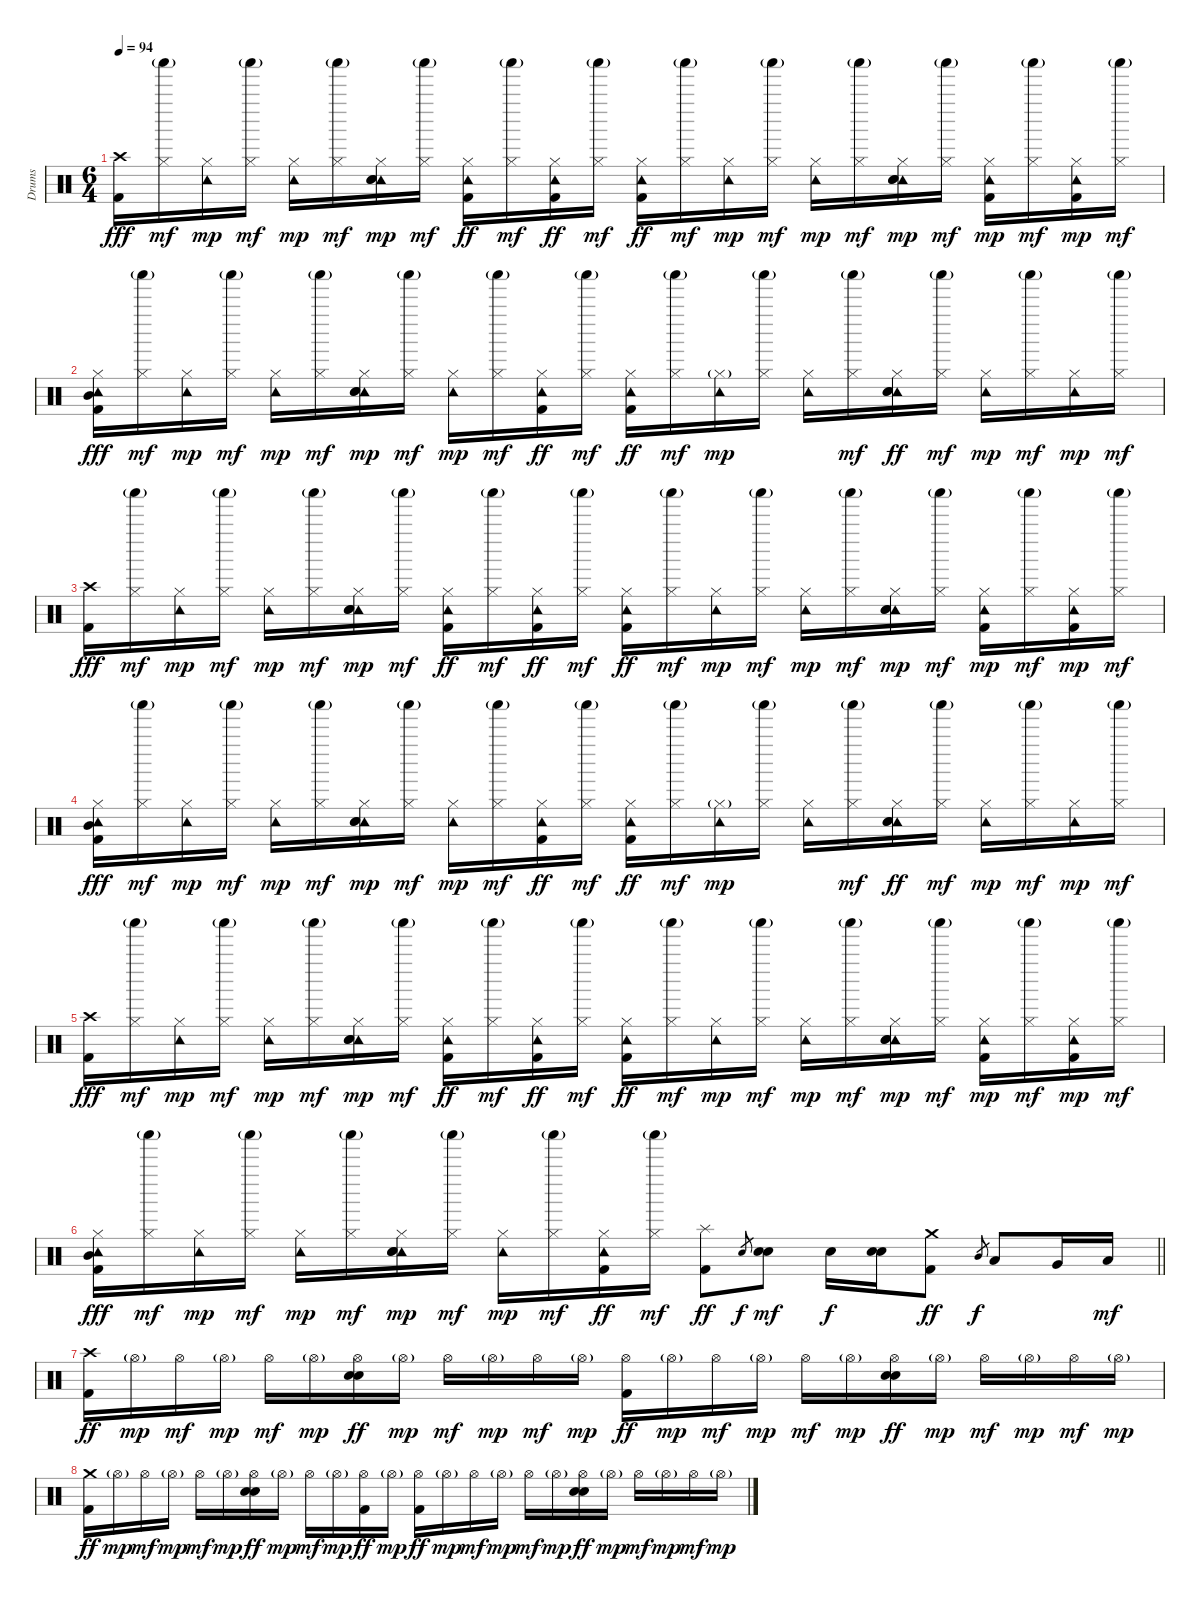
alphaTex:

\track ("Drums" "Drums") {instrument percussion}
\staff {score}
\articulation defaults
\ts (6 4)
\tempo 94
\clef neutral
\ks c
("Crash high (hit)" "Kick (hit) 2").16{dy fff} ("Shaker (hit)"{g} "Hi-Hat (closed)").16{dy mf} ("Hi-Hat (closed)" "Tambourine (hit)").16{dy mp} ("Shaker (hit)"{g} "Hi-Hat (closed)").16{dy mf} ("Hi-Hat (closed)" "Tambourine (hit)").16{dy mp} ("Shaker (hit)"{g} "Hi-Hat (closed)").16{dy mf} ("Hi-Hat (closed)" "Tambourine (hit)" "Electric Snare (hit)" "Metronome (bell)").16{dy mp} ("Shaker (hit)"{g} "Hi-Hat (closed)").16{dy mf} ("Hi-Hat (closed)" "Tambourine (hit)" "Kick (hit) 2").16{dy ff} ("Shaker (hit)"{g} "Hi-Hat (closed)").16{dy mf} ("Hi-Hat (closed)" "Tambourine (hit)" "Kick (hit) 2").16{dy ff} ("Shaker (hit)"{g} "Hi-Hat (closed)").16{dy mf} ("Hi-Hat (closed)" "Tambourine (hit)" "Kick (hit) 2").16{dy ff} ("Shaker (hit)"{g} "Hi-Hat (closed)").16{dy mf} ("Hi-Hat (closed)" "Tambourine (hit)").16{dy mp} ("Shaker (hit)"{g} "Hi-Hat (closed)").16{dy mf} ("Hi-Hat (closed)" "Tambourine (hit)").16{dy mp} ("Shaker (hit)"{g} "Hi-Hat (closed)").16{dy mf} ("Hi-Hat (closed)" "Tambourine (hit)" "Electric Snare (hit)" "Metronome (bell)").16{dy mp} ("Shaker (hit)"{g} "Hi-Hat (closed)").16{dy mf} ("Hi-Hat (closed)" "Tambourine (hit)" "Kick (hit) 2").16{dy mp} ("Shaker (hit)"{g} "Hi-Hat (closed)").16{dy mf} ("Hi-Hat (closed)" "Tambourine (hit)" "Kick (hit) 2").16{dy mp} ("Shaker (hit)"{g} "Hi-Hat (closed)").16{dy mf} |
("Hi-Hat (closed)" "Tambourine (hit)" "Mid Tom (hit)" "Kick (hit) 2").16{dy fff} ("Shaker (hit)"{g} "Hi-Hat (closed)").16{dy mf} ("Hi-Hat (closed)" "Tambourine (hit)").16{dy mp} ("Shaker (hit)"{g} "Hi-Hat (closed)").16{dy mf} ("Hi-Hat (closed)" "Tambourine (hit)").16{dy mp} ("Shaker (hit)"{g} "Hi-Hat (closed)").16{dy mf} ("Hi-Hat (closed)" "Tambourine (hit)" "Electric Snare (hit)" "Metronome (bell)").16{dy mp} ("Shaker (hit)"{g} "Hi-Hat (closed)").16{dy mf} ("Hi-Hat (closed)" "Tambourine (hit)").16{dy mp} ("Shaker (hit)"{g} "Hi-Hat (closed)").16{dy mf} ("Hi-Hat (closed)" "Tambourine (hit)" "Kick (hit) 2").16{dy ff} ("Shaker (hit)"{g} "Hi-Hat (closed)").16{dy mf} ("Hi-Hat (closed)" "Tambourine (hit)" "Kick (hit) 2").16{dy ff} ("Shaker (hit)"{g} "Hi-Hat (closed)").16{dy mf} ("Hi-Hat (closed)"{g} "Tambourine (hit)").16{dy mp} ("Shaker (hit)"{g} "Hi-Hat (closed)").16 ("Hi-Hat (closed)" "Tambourine (hit)").16 ("Shaker (hit)"{g} "Hi-Hat (closed)").16{dy mf} ("Hi-Hat (closed)" "Tambourine (hit)" "Electric Snare (hit)" "Metronome (bell)").16{dy ff} ("Shaker (hit)"{g} "Hi-Hat (closed)").16{dy mf} ("Hi-Hat (closed)" "Tambourine (hit)").16{dy mp} ("Shaker (hit)"{g} "Hi-Hat (closed)").16{dy mf} ("Hi-Hat (closed)" "Tambourine (hit)").16{dy mp} ("Shaker (hit)"{g} "Hi-Hat (closed)").16{dy mf} |
("Crash high (hit)" "Kick (hit) 2").16{dy fff} ("Shaker (hit)"{g} "Hi-Hat (closed)").16{dy mf} ("Hi-Hat (closed)" "Tambourine (hit)").16{dy mp} ("Shaker (hit)"{g} "Hi-Hat (closed)").16{dy mf} ("Hi-Hat (closed)" "Tambourine (hit)").16{dy mp} ("Shaker (hit)"{g} "Hi-Hat (closed)").16{dy mf} ("Hi-Hat (closed)" "Tambourine (hit)" "Electric Snare (hit)" "Metronome (bell)").16{dy mp} ("Shaker (hit)"{g} "Hi-Hat (closed)").16{dy mf} ("Hi-Hat (closed)" "Tambourine (hit)" "Kick (hit) 2").16{dy ff} ("Shaker (hit)"{g} "Hi-Hat (closed)").16{dy mf} ("Hi-Hat (closed)" "Tambourine (hit)" "Kick (hit) 2").16{dy ff} ("Shaker (hit)"{g} "Hi-Hat (closed)").16{dy mf} ("Hi-Hat (closed)" "Tambourine (hit)" "Kick (hit) 2").16{dy ff} ("Shaker (hit)"{g} "Hi-Hat (closed)").16{dy mf} ("Hi-Hat (closed)" "Tambourine (hit)").16{dy mp} ("Shaker (hit)"{g} "Hi-Hat (closed)").16{dy mf} ("Hi-Hat (closed)" "Tambourine (hit)").16{dy mp} ("Shaker (hit)"{g} "Hi-Hat (closed)").16{dy mf} ("Hi-Hat (closed)" "Tambourine (hit)" "Electric Snare (hit)" "Metronome (bell)").16{dy mp} ("Shaker (hit)"{g} "Hi-Hat (closed)").16{dy mf} ("Hi-Hat (closed)" "Tambourine (hit)" "Kick (hit) 2").16{dy mp} ("Shaker (hit)"{g} "Hi-Hat (closed)").16{dy mf} ("Hi-Hat (closed)" "Tambourine (hit)" "Kick (hit) 2").16{dy mp} ("Shaker (hit)"{g} "Hi-Hat (closed)").16{dy mf} |
("Hi-Hat (closed)" "Tambourine (hit)" "Mid Tom (hit)" "Kick (hit) 2").16{dy fff} ("Shaker (hit)"{g} "Hi-Hat (closed)").16{dy mf} ("Hi-Hat (closed)" "Tambourine (hit)").16{dy mp} ("Shaker (hit)"{g} "Hi-Hat (closed)").16{dy mf} ("Hi-Hat (closed)" "Tambourine (hit)").16{dy mp} ("Shaker (hit)"{g} "Hi-Hat (closed)").16{dy mf} ("Hi-Hat (closed)" "Tambourine (hit)" "Electric Snare (hit)" "Metronome (bell)").16{dy mp} ("Shaker (hit)"{g} "Hi-Hat (closed)").16{dy mf} ("Hi-Hat (closed)" "Tambourine (hit)").16{dy mp} ("Shaker (hit)"{g} "Hi-Hat (closed)").16{dy mf} ("Hi-Hat (closed)" "Tambourine (hit)" "Kick (hit) 2").16{dy ff} ("Shaker (hit)"{g} "Hi-Hat (closed)").16{dy mf} ("Hi-Hat (closed)" "Tambourine (hit)" "Kick (hit) 2").16{dy ff} ("Shaker (hit)"{g} "Hi-Hat (closed)").16{dy mf} ("Hi-Hat (closed)"{g} "Tambourine (hit)").16{dy mp} ("Shaker (hit)"{g} "Hi-Hat (closed)").16 ("Hi-Hat (closed)" "Tambourine (hit)").16 ("Shaker (hit)"{g} "Hi-Hat (closed)").16{dy mf} ("Hi-Hat (closed)" "Tambourine (hit)" "Electric Snare (hit)" "Metronome (bell)").16{dy ff} ("Shaker (hit)"{g} "Hi-Hat (closed)").16{dy mf} ("Hi-Hat (closed)" "Tambourine (hit)").16{dy mp} ("Shaker (hit)"{g} "Hi-Hat (closed)").16{dy mf} ("Hi-Hat (closed)" "Tambourine (hit)").16{dy mp} ("Shaker (hit)"{g} "Hi-Hat (closed)").16{dy mf} |
("Crash high (hit)" "Kick (hit) 2").16{dy fff} ("Shaker (hit)"{g} "Hi-Hat (closed)").16{dy mf} ("Hi-Hat (closed)" "Tambourine (hit)").16{dy mp} ("Shaker (hit)"{g} "Hi-Hat (closed)").16{dy mf} ("Hi-Hat (closed)" "Tambourine (hit)").16{dy mp} ("Shaker (hit)"{g} "Hi-Hat (closed)").16{dy mf} ("Hi-Hat (closed)" "Tambourine (hit)" "Electric Snare (hit)" "Metronome (bell)").16{dy mp} ("Shaker (hit)"{g} "Hi-Hat (closed)").16{dy mf} ("Hi-Hat (closed)" "Tambourine (hit)" "Kick (hit) 2").16{dy ff} ("Shaker (hit)"{g} "Hi-Hat (closed)").16{dy mf} ("Hi-Hat (closed)" "Tambourine (hit)" "Kick (hit) 2").16{dy ff} ("Shaker (hit)"{g} "Hi-Hat (closed)").16{dy mf} ("Hi-Hat (closed)" "Tambourine (hit)" "Kick (hit) 2").16{dy ff} ("Shaker (hit)"{g} "Hi-Hat (closed)").16{dy mf} ("Hi-Hat (closed)" "Tambourine (hit)").16{dy mp} ("Shaker (hit)"{g} "Hi-Hat (closed)").16{dy mf} ("Hi-Hat (closed)" "Tambourine (hit)").16{dy mp} ("Shaker (hit)"{g} "Hi-Hat (closed)").16{dy mf} ("Hi-Hat (closed)" "Tambourine (hit)" "Electric Snare (hit)" "Metronome (bell)").16{dy mp} ("Shaker (hit)"{g} "Hi-Hat (closed)").16{dy mf} ("Hi-Hat (closed)" "Tambourine (hit)" "Kick (hit) 2").16{dy mp} ("Shaker (hit)"{g} "Hi-Hat (closed)").16{dy mf} ("Hi-Hat (closed)" "Tambourine (hit)" "Kick (hit) 2").16{dy mp} ("Shaker (hit)"{g} "Hi-Hat (closed)").16{dy mf} |
\barLineRight lightlight
("Hi-Hat (closed)" "Tambourine (hit)" "Mid Tom (hit)" "Kick (hit) 2").16{dy fff} ("Shaker (hit)"{g} "Hi-Hat (closed)").16{dy mf} ("Hi-Hat (closed)" "Tambourine (hit)").16{dy mp} ("Shaker (hit)"{g} "Hi-Hat (closed)").16{dy mf} ("Hi-Hat (closed)" "Tambourine (hit)").16{dy mp} ("Shaker (hit)"{g} "Hi-Hat (closed)").16{dy mf} ("Hi-Hat (closed)" "Tambourine (hit)" "Electric Snare (hit)" "Metronome (bell)").16{dy mp} ("Shaker (hit)"{g} "Hi-Hat (closed)").16{dy mf} ("Hi-Hat (closed)" "Tambourine (hit)").16{dy mp} ("Shaker (hit)"{g} "Hi-Hat (closed)").16{dy mf} ("Hi-Hat (closed)" "Tambourine (hit)" "Kick (hit) 2").16{dy ff} ("Shaker (hit)"{g} "Hi-Hat (closed)").16{dy mf} ("Splash (hit)" "Kick (hit) 2").8{dy ff} "Electric Snare (hit)".8{gr dy f} ("Electric Snare (hit)" "Metronome (bell)").8{dy mf} "Electric Snare (hit)".16{dy f} ("Electric Snare (hit)" "Metronome (bell)").16 ("Crash medium (hit)" "Kick (hit) 2").8{dy ff} "Mid Tom (hit)".8{gr dy f} "Low Tom (hit)".8 "Very Low Tom (hit)".16 "Low Floor Tom (hit)".16{dy mf} |
("Crash high (hit)" "Kick (hit) 2").16{dy ff} "Hi-Hat (open)"{g}.16{dy mp} "Hi-Hat (open)".16{dy mf} "Hi-Hat (open)"{g}.16{dy mp} "Hi-Hat (open)".16{dy mf} "Hi-Hat (open)"{g}.16{dy mp} ("Hi-Hat (open)" "Electric Snare (hit)" "Metronome (bell)").16{dy ff} "Hi-Hat (open)"{g}.16{dy mp} "Hi-Hat (open)".16{dy mf} "Hi-Hat (open)"{g}.16{dy mp} "Hi-Hat (open)".16{dy mf} "Hi-Hat (open)"{g}.16{dy mp} ("Hi-Hat (open)" "Kick (hit) 2").16{dy ff} "Hi-Hat (open)"{g}.16{dy mp} "Hi-Hat (open)".16{dy mf} "Hi-Hat (open)"{g}.16{dy mp} "Hi-Hat (open)".16{dy mf} "Hi-Hat (open)"{g}.16{dy mp} ("Hi-Hat (open)" "Electric Snare (hit)" "Metronome (bell)").16{dy ff} "Hi-Hat (open)"{g}.16{dy mp} "Hi-Hat (open)".16{dy mf} "Hi-Hat (open)"{g}.16{dy mp} "Hi-Hat (open)".16{dy mf} "Hi-Hat (open)"{g}.16{dy mp} |
("Crash medium (hit)" "Kick (hit) 2").16{dy ff} "Hi-Hat (open)"{g}.16{dy mp} "Hi-Hat (open)".16{dy mf} "Hi-Hat (open)"{g}.16{dy mp} "Hi-Hat (open)".16{dy mf} "Hi-Hat (open)"{g}.16{dy mp} ("Hi-Hat (open)" "Electric Snare (hit)" "Metronome (bell)").16{dy ff} "Hi-Hat (open)"{g}.16{dy mp} "Hi-Hat (open)".16{dy mf} "Hi-Hat (open)"{g}.16{dy mp} ("Hi-Hat (open)" "Kick (hit) 2").16{dy ff} "Hi-Hat (open)"{g}.16{dy mp} ("Hi-Hat (open)" "Kick (hit) 2").16{dy ff} "Hi-Hat (open)"{g}.16{dy mp} "Hi-Hat (open)".16{dy mf} "Hi-Hat (open)"{g}.16{dy mp} "Hi-Hat (open)".16{dy mf} "Hi-Hat (open)"{g}.16{dy mp} ("Hi-Hat (open)" "Electric Snare (hit)" "Metronome (bell)").16{dy ff} "Hi-Hat (open)"{g}.16{dy mp} "Hi-Hat (open)".16{dy mf} "Hi-Hat (open)"{g}.16{dy mp} "Hi-Hat (open)".16{dy mf} "Hi-Hat (open)"{g}.16{dy mp}
